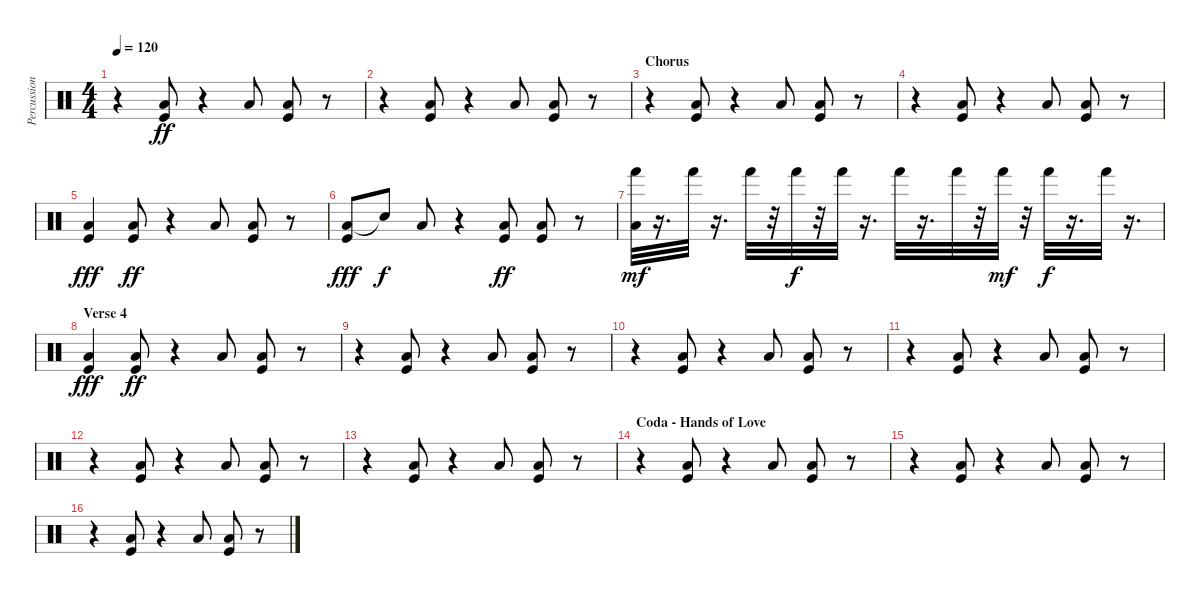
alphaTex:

\track ("Percussion" "Percussion") {instrument percussion}
\staff {score}
\articulation defaults
\ts (4 4)
\tempo 120
\clef neutral
\ks c
r.4{dy ff} ("Low Floor Tom (hit)" "Kick (hit)").8 r.4 "Low Tom (hit)".8 ("Low Floor Tom (hit)" "Kick (hit)").8 r.8 |
r.4 ("Low Floor Tom (hit)" "Kick (hit)").8 r.4 "Low Tom (hit)".8 ("Low Floor Tom (hit)" "Kick (hit)").8 r.8 |
\section ("" "Chorus")
r.4 ("Low Floor Tom (hit)" "Kick (hit)").8 r.4 "Low Tom (hit)".8 ("Low Floor Tom (hit)" "Kick (hit)").8 r.8 |
r.4 ("Low Floor Tom (hit)" "Kick (hit)").8 r.4 "Low Tom (hit)".8 ("Low Floor Tom (hit)" "Kick (hit)").8 r.8 |
("Low Floor Tom (hit)" "Kick (hit)").4{dy fff} ("Low Floor Tom (hit)" "Kick (hit)").8{dy ff} r.4 "Low Tom (hit)".8 ("Low Floor Tom (hit)" "Kick (hit)").8 r.8 |
("Low Floor Tom (hit)" "Kick (hit)").8{dy fff} "Snare (hit)"{t}.8{dy f} "Low Floor Tom (hit)".8 r.4 ("Low Tom (hit)" "Kick (hit)").8{dy ff} ("Low Floor Tom (hit)" "Kick (hit)").8 r.8 |
("Hand (hit)" "Low Floor Tom (hit)").32{dy mf} r.16{d} "Hand (hit)".32 r.16{d} "Hand (hit)".32 r.32 "Hand (hit)".32{dy f} r.32 "Hand (hit)".32 r.16{d} "Hand (hit)".32 r.16{d} "Hand (hit)".32 r.32 "Hand (hit)".32{dy mf} r.32 "Hand (hit)".32{dy f} r.16{d} "Hand (hit)".32 r.16{d} |
\section ("" "Verse 4")
("Low Floor Tom (hit)" "Kick (hit)").4{dy fff} ("Low Floor Tom (hit)" "Kick (hit)").8{dy ff} r.4 "Low Tom (hit)".8 ("Low Floor Tom (hit)" "Kick (hit)").8 r.8 |
r.4 ("Low Floor Tom (hit)" "Kick (hit)").8 r.4 "Low Tom (hit)".8 ("Low Floor Tom (hit)" "Kick (hit)").8 r.8 |
r.4 ("Low Floor Tom (hit)" "Kick (hit)").8 r.4 "Low Tom (hit)".8 ("Low Floor Tom (hit)" "Kick (hit)").8 r.8 |
r.4 ("Low Floor Tom (hit)" "Kick (hit)").8 r.4 "Low Tom (hit)".8 ("Low Floor Tom (hit)" "Kick (hit)").8 r.8 |
r.4 ("Low Floor Tom (hit)" "Kick (hit)").8 r.4 "Low Tom (hit)".8 ("Low Floor Tom (hit)" "Kick (hit)").8 r.8 |
r.4 ("Low Floor Tom (hit)" "Kick (hit)").8 r.4 "Low Tom (hit)".8 ("Low Floor Tom (hit)" "Kick (hit)").8 r.8 |
\section ("" "Coda - Hands of Love")
r.4 ("Low Floor Tom (hit)" "Kick (hit)").8 r.4 "Low Tom (hit)".8 ("Low Floor Tom (hit)" "Kick (hit)").8 r.8 |
r.4 ("Low Floor Tom (hit)" "Kick (hit)").8 r.4 "Low Tom (hit)".8 ("Low Floor Tom (hit)" "Kick (hit)").8 r.8 |
r.4 ("Low Floor Tom (hit)" "Kick (hit)").8 r.4 "Low Tom (hit)".8 ("Low Floor Tom (hit)" "Kick (hit)").8 r.8
